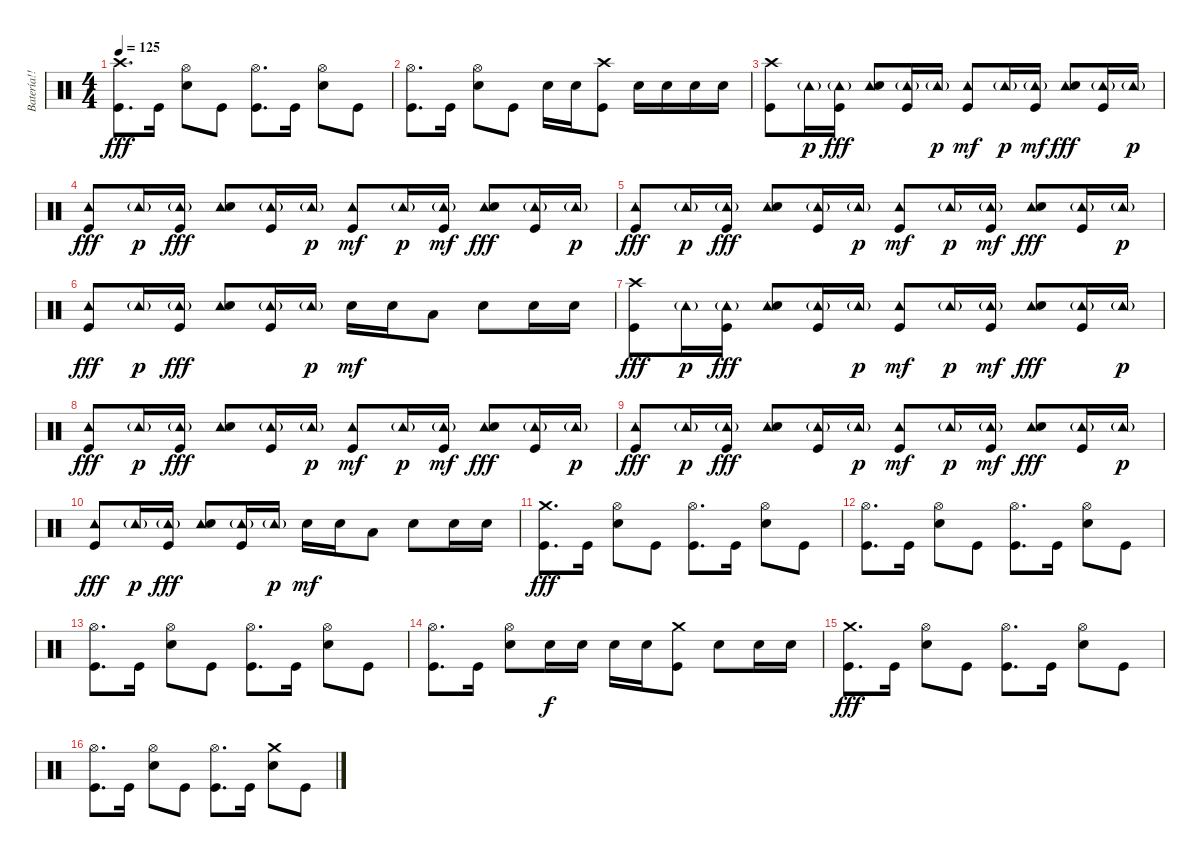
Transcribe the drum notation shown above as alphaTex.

\track ("Batería!! >_<" "Batería!! ") {instrument percussion}
\staff {score}
\articulation defaults
\ts (4 4)
\tempo 125
\clef neutral
\ks c
("Crash high (hit)" "Kick (hit)").8{d dy fff} "Kick (hit)".16 ("Hi-Hat (open)" "Snare (hit) 2").8 "Kick (hit)".8 ("Hi-Hat (open)" "Kick (hit)").8{d} "Kick (hit)".16 ("Hi-Hat (open)" "Snare (hit) 2").8 "Kick (hit)".8 |
("Hi-Hat (open)" "Kick (hit)").8{d} "Kick (hit)".16 ("Hi-Hat (open)" "Snare (hit) 2").8 "Kick (hit)".8 "Snare (hit) 2".16 "Snare (hit) 2".16 ("Crash high (hit)" "Kick (hit)").8 "Snare (hit) 2".16 "Snare (hit) 2".16 "Snare (hit) 2".16 "Snare (hit) 2".16 |
("Crash high (hit)" "Kick (hit)").8 "Tambourine (hit)"{g}.16{dy p} ("Tambourine (hit)"{g} "Kick (hit)").16{dy fff} ("Tambourine (hit)" "Snare (hit) 2").8 ("Tambourine (hit)"{g} "Kick (hit)").16 "Tambourine (hit)"{g}.16{dy p} ("Tambourine (hit)" "Kick (hit)").8{dy mf} "Tambourine (hit)"{g}.16{dy p} ("Tambourine (hit)"{g} "Kick (hit)").16{dy mf} ("Tambourine (hit)" "Snare (hit) 2").8{dy fff} ("Tambourine (hit)"{g} "Kick (hit)").16 "Tambourine (hit)"{g}.16{dy p} |
("Tambourine (hit)" "Kick (hit)").8{dy fff} "Tambourine (hit)"{g}.16{dy p} ("Tambourine (hit)"{g} "Kick (hit)").16{dy fff} ("Tambourine (hit)" "Snare (hit) 2").8 ("Tambourine (hit)"{g} "Kick (hit)").16 "Tambourine (hit)"{g}.16{dy p} ("Tambourine (hit)" "Kick (hit)").8{dy mf} "Tambourine (hit)"{g}.16{dy p} ("Tambourine (hit)"{g} "Kick (hit)").16{dy mf} ("Tambourine (hit)" "Snare (hit) 2").8{dy fff} ("Tambourine (hit)"{g} "Kick (hit)").16 "Tambourine (hit)"{g}.16{dy p} |
("Tambourine (hit)" "Kick (hit)").8{dy fff} "Tambourine (hit)"{g}.16{dy p} ("Tambourine (hit)"{g} "Kick (hit)").16{dy fff} ("Tambourine (hit)" "Snare (hit) 2").8 ("Tambourine (hit)"{g} "Kick (hit)").16 "Tambourine (hit)"{g}.16{dy p} ("Tambourine (hit)" "Kick (hit)").8{dy mf} "Tambourine (hit)"{g}.16{dy p} ("Tambourine (hit)"{g} "Kick (hit)").16{dy mf} ("Tambourine (hit)" "Snare (hit) 2").8{dy fff} ("Tambourine (hit)"{g} "Kick (hit)").16 "Tambourine (hit)"{g}.16{dy p} |
("Tambourine (hit)" "Kick (hit)").8{dy fff} "Tambourine (hit)"{g}.16{dy p} ("Tambourine (hit)"{g} "Kick (hit)").16{dy fff} ("Tambourine (hit)" "Snare (hit) 2").8 ("Tambourine (hit)"{g} "Kick (hit)").16 "Tambourine (hit)"{g}.16{dy p} "Snare (hit) 2".16{dy mf} "Snare (hit) 2".16 "Low Tom (hit)".8 "Snare (hit) 2".8 "Snare (hit) 2".16 "Snare (hit) 2".16 |
("Crash high (hit)" "Kick (hit)").8{dy fff} "Tambourine (hit)"{g}.16{dy p} ("Tambourine (hit)"{g} "Kick (hit)").16{dy fff} ("Tambourine (hit)" "Snare (hit) 2").8 ("Tambourine (hit)"{g} "Kick (hit)").16 "Tambourine (hit)"{g}.16{dy p} ("Tambourine (hit)" "Kick (hit)").8{dy mf} "Tambourine (hit)"{g}.16{dy p} ("Tambourine (hit)"{g} "Kick (hit)").16{dy mf} ("Tambourine (hit)" "Snare (hit) 2").8{dy fff} ("Tambourine (hit)"{g} "Kick (hit)").16 "Tambourine (hit)"{g}.16{dy p} |
("Tambourine (hit)" "Kick (hit)").8{dy fff} "Tambourine (hit)"{g}.16{dy p} ("Tambourine (hit)"{g} "Kick (hit)").16{dy fff} ("Tambourine (hit)" "Snare (hit) 2").8 ("Tambourine (hit)"{g} "Kick (hit)").16 "Tambourine (hit)"{g}.16{dy p} ("Tambourine (hit)" "Kick (hit)").8{dy mf} "Tambourine (hit)"{g}.16{dy p} ("Tambourine (hit)"{g} "Kick (hit)").16{dy mf} ("Tambourine (hit)" "Snare (hit) 2").8{dy fff} ("Tambourine (hit)"{g} "Kick (hit)").16 "Tambourine (hit)"{g}.16{dy p} |
("Tambourine (hit)" "Kick (hit)").8{dy fff} "Tambourine (hit)"{g}.16{dy p} ("Tambourine (hit)"{g} "Kick (hit)").16{dy fff} ("Tambourine (hit)" "Snare (hit) 2").8 ("Tambourine (hit)"{g} "Kick (hit)").16 "Tambourine (hit)"{g}.16{dy p} ("Tambourine (hit)" "Kick (hit)").8{dy mf} "Tambourine (hit)"{g}.16{dy p} ("Tambourine (hit)"{g} "Kick (hit)").16{dy mf} ("Tambourine (hit)" "Snare (hit) 2").8{dy fff} ("Tambourine (hit)"{g} "Kick (hit)").16 "Tambourine (hit)"{g}.16{dy p} |
("Tambourine (hit)" "Kick (hit)").8{dy fff} "Tambourine (hit)"{g}.16{dy p} ("Tambourine (hit)"{g} "Kick (hit)").16{dy fff} ("Tambourine (hit)" "Snare (hit) 2").8 ("Tambourine (hit)"{g} "Kick (hit)").16 "Tambourine (hit)"{g}.16{dy p} "Snare (hit) 2".16{dy mf} "Snare (hit) 2".16 "Low Tom (hit)".8 "Snare (hit) 2".8 "Snare (hit) 2".16 "Snare (hit) 2".16 |
("Crash medium (hit)" "Kick (hit)").8{d dy fff} "Kick (hit)".16 ("Hi-Hat (open)" "Snare (hit) 2").8 "Kick (hit)".8 ("Hi-Hat (open)" "Kick (hit)").8{d} "Kick (hit)".16 ("Hi-Hat (open)" "Snare (hit) 2").8 "Kick (hit)".8 |
("Hi-Hat (open)" "Kick (hit)").8{d} "Kick (hit)".16 ("Hi-Hat (open)" "Snare (hit) 2").8 "Kick (hit)".8 ("Hi-Hat (open)" "Kick (hit)").8{d} "Kick (hit)".16 ("Hi-Hat (open)" "Snare (hit) 2").8 "Kick (hit)".8 |
("Hi-Hat (open)" "Kick (hit)").8{d} "Kick (hit)".16 ("Hi-Hat (open)" "Snare (hit) 2").8 "Kick (hit)".8 ("Hi-Hat (open)" "Kick (hit)").8{d} "Kick (hit)".16 ("Hi-Hat (open)" "Snare (hit) 2").8 "Kick (hit)".8 |
("Hi-Hat (open)" "Kick (hit)").8{d} "Kick (hit)".16 ("Hi-Hat (open)" "Snare (hit) 2").8 "Snare (hit) 2".16{dy f} "Snare (hit) 2".16 "Snare (hit) 2".16 "Snare (hit) 2".16 ("Crash medium (hit)" "Kick (hit)").8 "Snare (hit) 2".8 "Snare (hit) 2".16 "Snare (hit) 2".16 |
("Crash medium (hit)" "Kick (hit)").8{d dy fff} "Kick (hit)".16 ("Hi-Hat (open)" "Snare (hit) 2").8 "Kick (hit)".8 ("Hi-Hat (open)" "Kick (hit)").8{d} "Kick (hit)".16 ("Hi-Hat (open)" "Snare (hit) 2").8 "Kick (hit)".8 |
("Hi-Hat (open)" "Kick (hit)").8{d} "Kick (hit)".16 ("Hi-Hat (open)" "Snare (hit) 2").8 "Kick (hit)".8 ("Hi-Hat (open)" "Kick (hit)").8{d} "Kick (hit)".16 ("Crash medium (hit)" "Snare (hit) 2").8 "Kick (hit)".8
